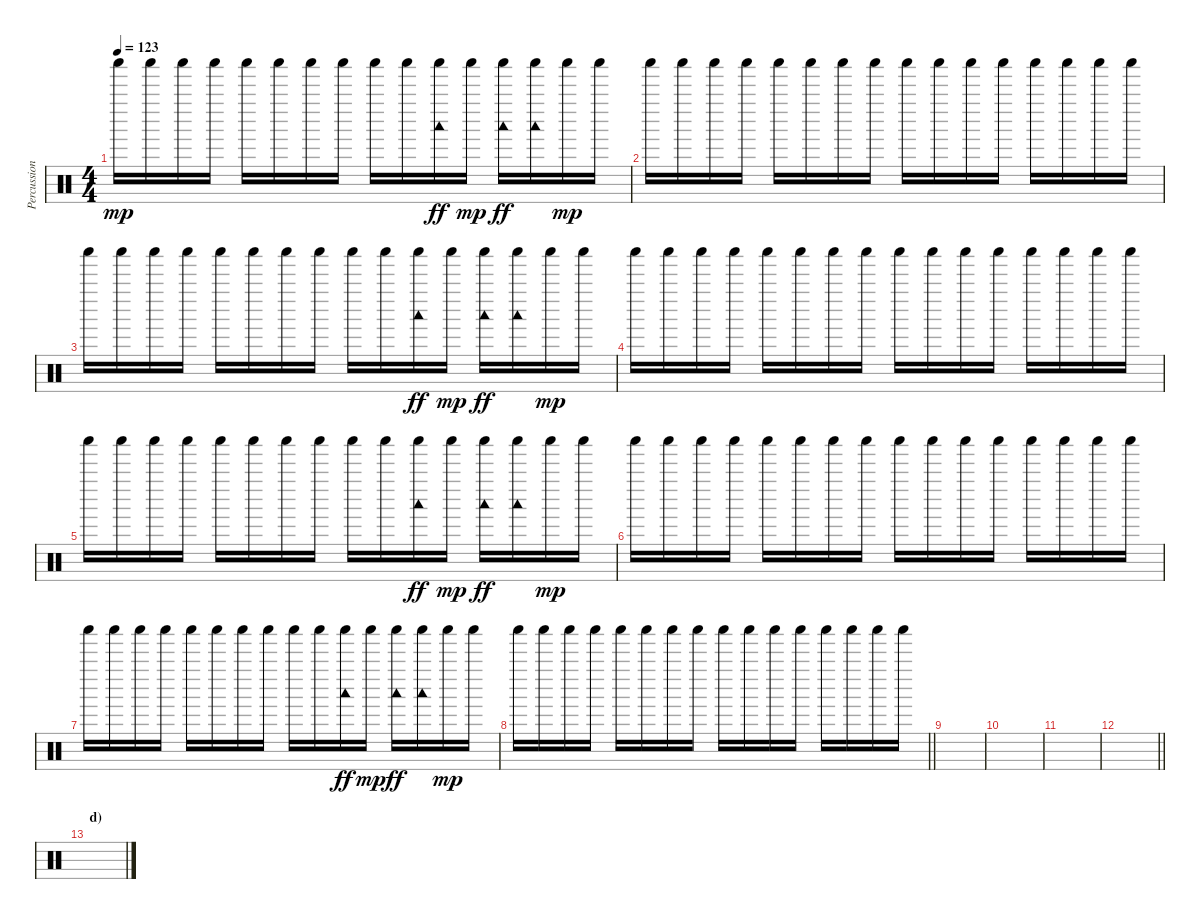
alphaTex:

\track ("Percussion" "Percussion") {instrument percussion}
\staff {score}
\articulation defaults
\ts (4 4)
\tempo 123
\clef neutral
\ks c "Shaker (hit)".16{dy mp} "Shaker (hit)".16 "Shaker (hit)".16 "Shaker (hit)".16 "Shaker (hit)".16 "Shaker (hit)".16 "Shaker (hit)".16 "Shaker (hit)".16 "Shaker (hit)".16 "Shaker (hit)".16
("Shaker (hit)" "Woodblock low (hit)").16{dy ff} "Shaker (hit)".16{dy mp} ("Shaker (hit)" "Woodblock low (hit)").16{dy ff} ("Shaker (hit)" "Woodblock low (hit)").16 "Shaker (hit)".16{dy mp} "Shaker (hit)".16 |
"Shaker (hit)".16 "Shaker (hit)".16 "Shaker (hit)".16 "Shaker (hit)".16 "Shaker (hit)".16 "Shaker (hit)".16 "Shaker (hit)".16 "Shaker (hit)".16 "Shaker (hit)".16 "Shaker (hit)".16 "Shaker (hit)".16 "Shaker (hit)".16 "Shaker (hit)".16 "Shaker (hit)".16 "Shaker (hit)".16 "Shaker (hit)".16 |
"Shaker (hit)".16 "Shaker (hit)".16 "Shaker (hit)".16 "Shaker (hit)".16 "Shaker (hit)".16 "Shaker (hit)".16 "Shaker (hit)".16 "Shaker (hit)".16 "Shaker (hit)".16 "Shaker (hit)".16 ("Shaker (hit)" "Woodblock low (hit)").16{dy ff} "Shaker (hit)".16{dy mp} ("Shaker (hit)" "Woodblock low (hit)").16{dy ff} ("Shaker (hit)" "Woodblock low (hit)").16 "Shaker (hit)".16{dy mp} "Shaker (hit)".16 |
"Shaker (hit)".16 "Shaker (hit)".16 "Shaker (hit)".16 "Shaker (hit)".16 "Shaker (hit)".16 "Shaker (hit)".16 "Shaker (hit)".16 "Shaker (hit)".16 "Shaker (hit)".16 "Shaker (hit)".16 "Shaker (hit)".16 "Shaker (hit)".16 "Shaker (hit)".16 "Shaker (hit)".16 "Shaker (hit)".16 "Shaker (hit)".16 |
"Shaker (hit)".16 "Shaker (hit)".16 "Shaker (hit)".16 "Shaker (hit)".16 "Shaker (hit)".16 "Shaker (hit)".16 "Shaker (hit)".16 "Shaker (hit)".16 "Shaker (hit)".16 "Shaker (hit)".16 ("Shaker (hit)" "Woodblock low (hit)").16{dy ff} "Shaker (hit)".16{dy mp} ("Shaker (hit)" "Woodblock low (hit)").16{dy ff} ("Shaker (hit)" "Woodblock low (hit)").16 "Shaker (hit)".16{dy mp} "Shaker (hit)".16 |
"Shaker (hit)".16 "Shaker (hit)".16 "Shaker (hit)".16 "Shaker (hit)".16 "Shaker (hit)".16 "Shaker (hit)".16 "Shaker (hit)".16 "Shaker (hit)".16 "Shaker (hit)".16 "Shaker (hit)".16 "Shaker (hit)".16 "Shaker (hit)".16 "Shaker (hit)".16 "Shaker (hit)".16 "Shaker (hit)".16 "Shaker (hit)".16 |
"Shaker (hit)".16 "Shaker (hit)".16 "Shaker (hit)".16 "Shaker (hit)".16 "Shaker (hit)".16 "Shaker (hit)".16 "Shaker (hit)".16 "Shaker (hit)".16 "Shaker (hit)".16 "Shaker (hit)".16 ("Shaker (hit)" "Woodblock low (hit)").16{dy ff} "Shaker (hit)".16{dy mp} ("Shaker (hit)" "Woodblock low (hit)").16{dy ff} ("Shaker (hit)" "Woodblock low (hit)").16 "Shaker (hit)".16{dy mp} "Shaker (hit)".16 |
\barLineRight lightlight "Shaker (hit)".16 "Shaker (hit)".16 "Shaker (hit)".16 "Shaker (hit)".16 "Shaker (hit)".16 "Shaker (hit)".16 "Shaker (hit)".16 "Shaker (hit)".16 "Shaker (hit)".16 "Shaker (hit)".16 "Shaker (hit)".16 "Shaker (hit)".16 "Shaker (hit)".16 "Shaker (hit)".16 "Shaker (hit)".16 "Shaker (hit)".16
|
|
|
|
\barLineRight lightlight
|
\section ("" "d)")
